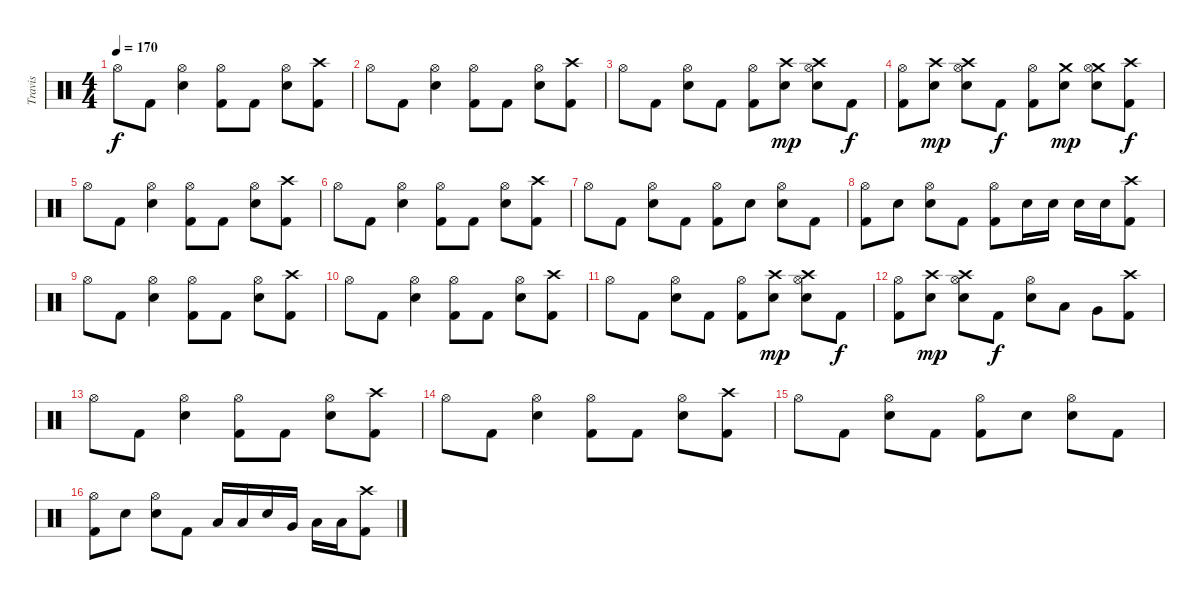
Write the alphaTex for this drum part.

\track ("Travis" "Travis") {instrument percussion}
\staff {score}
\articulation defaults
\ts (4 4)
\tempo 170
\clef neutral
\ks c "Hi-Hat (open)".8{dy f} "Kick (hit) 2".8
("Hi-Hat (open)" "Snare (hit) 2").4 ("Hi-Hat (open)" "Kick (hit) 2").8 "Kick (hit) 2".8 ("Hi-Hat (open)" "Snare (hit) 2").8 ("Crash high (hit)" "Kick (hit) 2").8 |
"Hi-Hat (open)".8 "Kick (hit) 2".8 ("Hi-Hat (open)" "Snare (hit) 2").4 ("Hi-Hat (open)" "Kick (hit) 2").8 "Kick (hit) 2".8 ("Hi-Hat (open)" "Snare (hit) 2").8 ("Crash high (hit)" "Kick (hit) 2").8 |
"Hi-Hat (open)".8 "Kick (hit) 2".8 ("Hi-Hat (open)" "Snare (hit) 2").8 "Kick (hit) 2".8 ("Hi-Hat (open)" "Kick (hit) 2").8 ("Crash high (hit)" "Snare (hit) 2").8{dy mp} ("Crash high (hit)" "Hi-Hat (open)" "Snare (hit) 2").8 "Kick (hit) 2".8{dy f} |
("Hi-Hat (open)" "Kick (hit) 2").8 ("Crash high (hit)" "Snare (hit) 2").8{dy mp} ("Crash high (hit)" "Hi-Hat (open)" "Snare (hit) 2").8 "Kick (hit) 2".8{dy f} ("Hi-Hat (open)" "Kick (hit) 2").8 ("Crash medium (hit)" "Snare (hit) 2").8{dy mp} ("Crash medium (hit)" "Hi-Hat (open)" "Snare (hit) 2").8 ("Crash high (hit)" "Kick (hit) 2").8{dy f} |
"Hi-Hat (open)".8 "Kick (hit) 2".8 ("Hi-Hat (open)" "Snare (hit) 2").4 ("Hi-Hat (open)" "Kick (hit) 2").8 "Kick (hit) 2".8 ("Hi-Hat (open)" "Snare (hit) 2").8 ("Crash high (hit)" "Kick (hit) 2").8 |
"Hi-Hat (open)".8 "Kick (hit) 2".8 ("Hi-Hat (open)" "Snare (hit) 2").4 ("Hi-Hat (open)" "Kick (hit) 2").8 "Kick (hit) 2".8 ("Hi-Hat (open)" "Snare (hit) 2").8 ("Crash high (hit)" "Kick (hit) 2").8 |
"Hi-Hat (open)".8 "Kick (hit) 2".8 ("Hi-Hat (open)" "Snare (hit) 2").8 "Kick (hit) 2".8 ("Hi-Hat (open)" "Kick (hit) 2").8 "Snare (hit) 2".8 ("Hi-Hat (open)" "Snare (hit) 2").8 "Kick (hit) 2".8 |
("Hi-Hat (open)" "Kick (hit) 2").8 "Snare (hit) 2".8 ("Hi-Hat (open)" "Snare (hit) 2").8 "Kick (hit) 2".8 ("Hi-Hat (open)" "Kick (hit) 2").8 "Snare (hit) 2".16 "Snare (hit) 2".16 "Snare (hit) 2".16 "Snare (hit) 2".16 ("Crash high (hit)" "Kick (hit) 2").8 |
"Hi-Hat (open)".8 "Kick (hit) 2".8 ("Hi-Hat (open)" "Snare (hit) 2").4 ("Hi-Hat (open)" "Kick (hit) 2").8 "Kick (hit) 2".8 ("Hi-Hat (open)" "Snare (hit) 2").8 ("Crash high (hit)" "Kick (hit) 2").8 |
"Hi-Hat (open)".8 "Kick (hit) 2".8 ("Hi-Hat (open)" "Snare (hit) 2").4 ("Hi-Hat (open)" "Kick (hit) 2").8 "Kick (hit) 2".8 ("Hi-Hat (open)" "Snare (hit) 2").8 ("Crash high (hit)" "Kick (hit) 2").8 |
"Hi-Hat (open)".8 "Kick (hit) 2".8 ("Hi-Hat (open)" "Snare (hit) 2").8 "Kick (hit) 2".8 ("Hi-Hat (open)" "Kick (hit) 2").8 ("Crash high (hit)" "Snare (hit) 2").8{dy mp} ("Crash high (hit)" "Hi-Hat (open)" "Snare (hit) 2").8 "Kick (hit) 2".8{dy f} |
("Hi-Hat (open)" "Kick (hit) 2").8 ("Crash high (hit)" "Snare (hit) 2").8{dy mp} ("Crash high (hit)" "Hi-Hat (open)" "Snare (hit) 2").8 "Kick (hit) 2".8{dy f} ("Hi-Hat (open)" "Snare (hit) 2").8 "Low Tom (hit)".8 "Very Low Tom (hit)".8 ("Crash high (hit)" "Kick (hit) 2").8 |
"Hi-Hat (open)".8 "Kick (hit) 2".8 ("Hi-Hat (open)" "Snare (hit) 2").4 ("Hi-Hat (open)" "Kick (hit) 2").8 "Kick (hit) 2".8 ("Hi-Hat (open)" "Snare (hit) 2").8 ("Crash high (hit)" "Kick (hit) 2").8 |
"Hi-Hat (open)".8 "Kick (hit) 2".8 ("Hi-Hat (open)" "Snare (hit) 2").4 ("Hi-Hat (open)" "Kick (hit) 2").8 "Kick (hit) 2".8 ("Hi-Hat (open)" "Snare (hit) 2").8 ("Crash high (hit)" "Kick (hit) 2").8 |
"Hi-Hat (open)".8 "Kick (hit) 2".8 ("Hi-Hat (open)" "Snare (hit) 2").8 "Kick (hit) 2".8 ("Hi-Hat (open)" "Kick (hit) 2").8 "Snare (hit) 2".8 ("Hi-Hat (open)" "Snare (hit) 2").8 "Kick (hit) 2".8 |
("Hi-Hat (open)" "Kick (hit) 2").8 "Snare (hit) 2".8 ("Hi-Hat (open)" "Snare (hit) 2").8 "Kick (hit) 2".8 "Low Tom (hit)".16 "Low Tom (hit)".16 "Snare (hit) 2".16 "Very Low Tom (hit)".16 "Low Floor Tom (hit)".16 "Low Floor Tom (hit)".16 ("Crash high (hit)" "Kick (hit) 2").8
